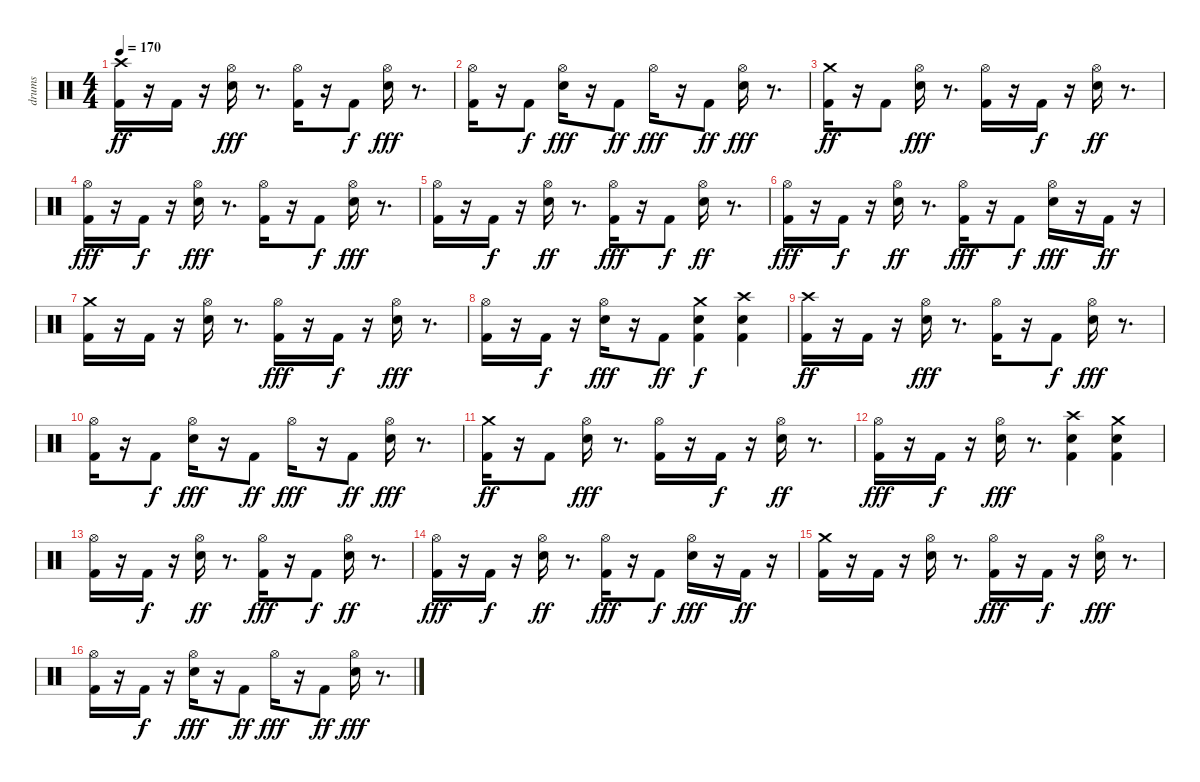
\track ("drums" "drums") {instrument percussion}
\staff {score}
\articulation defaults
\ts (4 4)
\tempo 170
\clef neutral
\ks c
("Crash high (hit)" "Kick (hit) 2").16{dy ff} r.16 "Kick (hit) 2".16 r.16 ("Hi-Hat (open)" "Snare (hit) 2").16{dy fff} r.8{d} ("Kick (hit) 2" "Hi-Hat (open)").16 r.16 "Kick (hit) 2".8{dy f} ("Snare (hit) 2" "Hi-Hat (open)").16{dy fff} r.8{d} |
("Kick (hit) 2" "Hi-Hat (open)").16 r.16 "Kick (hit) 2".8{dy f} ("Snare (hit) 2" "Hi-Hat (open)").16{dy fff} r.16 "Kick (hit) 2".8{dy ff} "Hi-Hat (open)".16{dy fff} r.16 "Kick (hit) 2".8{dy ff} ("Snare (hit) 2" "Hi-Hat (open)").16{dy fff} r.8{d} |
("Kick (hit) 2" "Crash medium (hit)").16{dy ff} r.16 "Kick (hit) 2".8 ("Hi-Hat (open)" "Snare (hit) 2").16{dy fff} r.8{d} ("Kick (hit) 2" "Hi-Hat (open)").16 r.16 "Kick (hit) 2".16{dy f} r.16 ("Hi-Hat (open)" "Snare (hit) 2").16{dy ff} r.8{d} |
("Hi-Hat (open)" "Kick (hit) 2").16{dy fff} r.16 "Kick (hit) 2".16{dy f} r.16 ("Snare (hit) 2" "Hi-Hat (open)").16{dy fff} r.8{d} ("Kick (hit) 2" "Hi-Hat (open)").16 r.16 "Kick (hit) 2".8{dy f} ("Snare (hit) 2" "Hi-Hat (open)").16{dy fff} r.8{d} |
("Kick (hit) 2" "Hi-Hat (open)").16 r.16 "Kick (hit) 2".16{dy f} r.16 ("Hi-Hat (open)" "Snare (hit) 2").16{dy ff} r.8{d} ("Kick (hit) 2" "Hi-Hat (open)").16{dy fff} r.16 "Kick (hit) 2".8{dy f} ("Hi-Hat (open)" "Snare (hit) 2").16{dy ff} r.8{d} |
("Kick (hit) 2" "Hi-Hat (open)").16{dy fff} r.16 "Kick (hit) 2".16{dy f} r.16 ("Hi-Hat (open)" "Snare (hit) 2").16{dy ff} r.8{d} ("Kick (hit) 2" "Hi-Hat (open)").16{dy fff} r.16 "Kick (hit) 2".8{dy f} ("Snare (hit) 2" "Hi-Hat (open)").16{dy fff} r.16 "Kick (hit) 2".16{dy ff} r.16 |
("Crash medium (hit)" "Kick (hit) 2").16 r.16 "Kick (hit) 2".16 r.16 ("Snare (hit) 2" "Hi-Hat (open)").16 r.8{d} ("Kick (hit) 2" "Hi-Hat (open)").16{dy fff} r.16 "Kick (hit) 2".16{dy f} r.16 ("Snare (hit) 2" "Hi-Hat (open)").16{dy fff} r.8{d} |
("Kick (hit) 2" "Hi-Hat (open)").16 r.16 "Kick (hit) 2".16{dy f} r.16 ("Snare (hit) 2" "Hi-Hat (open)").16{dy fff} r.16 "Kick (hit) 2".8{dy ff} ("Snare (hit) 2" "Crash medium (hit)" "Kick (hit) 2").4{dy f} ("Snare (hit) 2" "Crash high (hit)" "Kick (hit) 2").4 |
("Crash high (hit)" "Kick (hit) 2").16{dy ff} r.16 "Kick (hit) 2".16 r.16 ("Hi-Hat (open)" "Snare (hit) 2").16{dy fff} r.8{d} ("Kick (hit) 2" "Hi-Hat (open)").16 r.16 "Kick (hit) 2".8{dy f} ("Snare (hit) 2" "Hi-Hat (open)").16{dy fff} r.8{d} |
("Kick (hit) 2" "Hi-Hat (open)").16 r.16 "Kick (hit) 2".8{dy f} ("Snare (hit) 2" "Hi-Hat (open)").16{dy fff} r.16 "Kick (hit) 2".8{dy ff} "Hi-Hat (open)".16{dy fff} r.16 "Kick (hit) 2".8{dy ff} ("Snare (hit) 2" "Hi-Hat (open)").16{dy fff} r.8{d} |
("Kick (hit) 2" "Crash medium (hit)").16{dy ff} r.16 "Kick (hit) 2".8 ("Hi-Hat (open)" "Snare (hit) 2").16{dy fff} r.8{d} ("Kick (hit) 2" "Hi-Hat (open)").16 r.16 "Kick (hit) 2".16{dy f} r.16 ("Hi-Hat (open)" "Snare (hit) 2").16{dy ff} r.8{d} |
("Hi-Hat (open)" "Kick (hit) 2").16{dy fff} r.16 "Kick (hit) 2".16{dy f} r.16 ("Snare (hit) 2" "Hi-Hat (open)").16{dy fff} r.8{d} ("Snare (hit) 2" "Kick (hit) 2" "Crash high (hit)").4 ("Snare (hit) 2" "Kick (hit) 2" "Crash medium (hit)").4 |
("Kick (hit) 2" "Hi-Hat (open)").16 r.16 "Kick (hit) 2".16{dy f} r.16 ("Hi-Hat (open)" "Snare (hit) 2").16{dy ff} r.8{d} ("Kick (hit) 2" "Hi-Hat (open)").16{dy fff} r.16 "Kick (hit) 2".8{dy f} ("Hi-Hat (open)" "Snare (hit) 2").16{dy ff} r.8{d} |
("Kick (hit) 2" "Hi-Hat (open)").16{dy fff} r.16 "Kick (hit) 2".16{dy f} r.16 ("Hi-Hat (open)" "Snare (hit) 2").16{dy ff} r.8{d} ("Kick (hit) 2" "Hi-Hat (open)").16{dy fff} r.16 "Kick (hit) 2".8{dy f} ("Snare (hit) 2" "Hi-Hat (open)").16{dy fff} r.16 "Kick (hit) 2".16{dy ff} r.16 |
("Crash medium (hit)" "Kick (hit) 2").16 r.16 "Kick (hit) 2".16 r.16 ("Snare (hit) 2" "Hi-Hat (open)").16 r.8{d} ("Kick (hit) 2" "Hi-Hat (open)").16{dy fff} r.16 "Kick (hit) 2".16{dy f} r.16 ("Snare (hit) 2" "Hi-Hat (open)").16{dy fff} r.8{d} |
("Kick (hit) 2" "Hi-Hat (open)").16 r.16 "Kick (hit) 2".16{dy f} r.16 ("Snare (hit) 2" "Hi-Hat (open)").16{dy fff} r.16 "Kick (hit) 2".8{dy ff} "Hi-Hat (open)".16{dy fff} r.16 "Kick (hit) 2".8{dy ff} ("Snare (hit) 2" "Hi-Hat (open)").16{dy fff} r.8{d}
